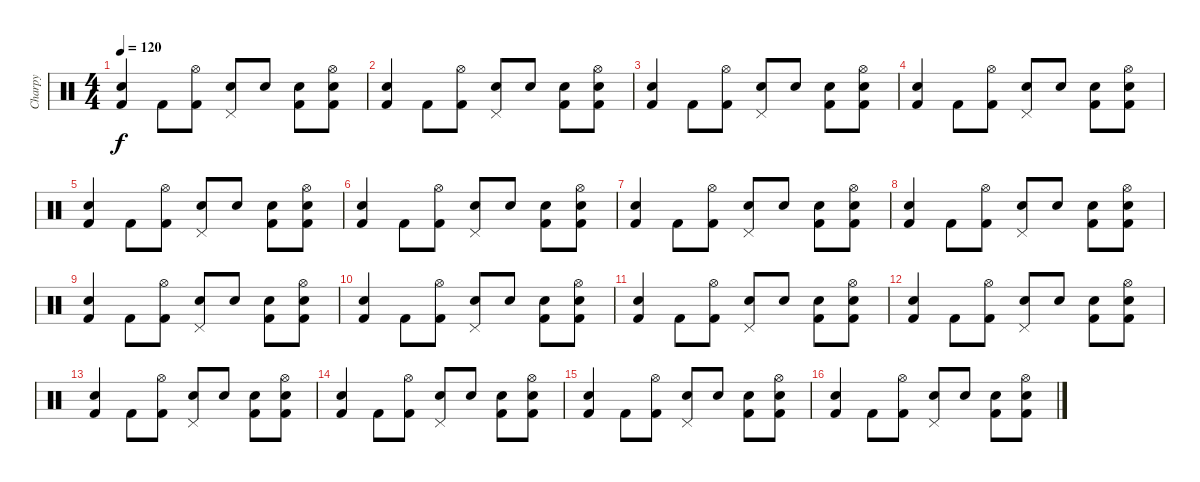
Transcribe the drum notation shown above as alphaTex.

\track ("Charpy" "Charpy") {instrument percussion}
\staff {score}
\articulation defaults
\ts (4 4)
\tempo 120
\clef neutral
\ks c
("Snare (hit) 2" "Kick (hit) 2").4{dy f} "Kick (hit) 2".8 ("Hi-Hat (open)" "Kick (hit) 2").8 ("Pedal Hi-Hat (hit)" "Snare (hit) 2").8 "Snare (hit) 2".8 ("Snare (hit) 2" "Kick (hit) 2").8 ("Hi-Hat (open)" "Snare (hit) 2" "Kick (hit) 2").8 |
("Snare (hit) 2" "Kick (hit) 2").4 "Kick (hit) 2".8 ("Hi-Hat (open)" "Kick (hit) 2").8 ("Pedal Hi-Hat (hit)" "Snare (hit) 2").8 "Snare (hit) 2".8 ("Snare (hit) 2" "Kick (hit) 2").8 ("Hi-Hat (open)" "Snare (hit) 2" "Kick (hit) 2").8 |
("Snare (hit) 2" "Kick (hit) 2").4 "Kick (hit) 2".8 ("Hi-Hat (open)" "Kick (hit) 2").8 ("Pedal Hi-Hat (hit)" "Snare (hit) 2").8 "Snare (hit) 2".8 ("Snare (hit) 2" "Kick (hit) 2").8 ("Hi-Hat (open)" "Snare (hit) 2" "Kick (hit) 2").8 |
("Snare (hit) 2" "Kick (hit) 2").4 "Kick (hit) 2".8 ("Hi-Hat (open)" "Kick (hit) 2").8 ("Pedal Hi-Hat (hit)" "Snare (hit) 2").8 "Snare (hit) 2".8 ("Snare (hit) 2" "Kick (hit) 2").8 ("Hi-Hat (open)" "Snare (hit) 2" "Kick (hit) 2").8 |
("Snare (hit) 2" "Kick (hit) 2").4 "Kick (hit) 2".8 ("Hi-Hat (open)" "Kick (hit) 2").8 ("Pedal Hi-Hat (hit)" "Snare (hit) 2").8 "Snare (hit) 2".8 ("Snare (hit) 2" "Kick (hit) 2").8 ("Hi-Hat (open)" "Snare (hit) 2" "Kick (hit) 2").8 |
("Snare (hit) 2" "Kick (hit) 2").4 "Kick (hit) 2".8 ("Hi-Hat (open)" "Kick (hit) 2").8 ("Pedal Hi-Hat (hit)" "Snare (hit) 2").8 "Snare (hit) 2".8 ("Snare (hit) 2" "Kick (hit) 2").8 ("Hi-Hat (open)" "Snare (hit) 2" "Kick (hit) 2").8 |
("Snare (hit) 2" "Kick (hit) 2").4 "Kick (hit) 2".8 ("Hi-Hat (open)" "Kick (hit) 2").8 ("Pedal Hi-Hat (hit)" "Snare (hit) 2").8 "Snare (hit) 2".8 ("Snare (hit) 2" "Kick (hit) 2").8 ("Hi-Hat (open)" "Snare (hit) 2" "Kick (hit) 2").8 |
("Snare (hit) 2" "Kick (hit) 2").4 "Kick (hit) 2".8 ("Hi-Hat (open)" "Kick (hit) 2").8 ("Pedal Hi-Hat (hit)" "Snare (hit) 2").8 "Snare (hit) 2".8 ("Snare (hit) 2" "Kick (hit) 2").8 ("Hi-Hat (open)" "Snare (hit) 2" "Kick (hit) 2").8 |
("Snare (hit) 2" "Kick (hit) 2").4 "Kick (hit) 2".8 ("Hi-Hat (open)" "Kick (hit) 2").8 ("Pedal Hi-Hat (hit)" "Snare (hit) 2").8 "Snare (hit) 2".8 ("Snare (hit) 2" "Kick (hit) 2").8 ("Hi-Hat (open)" "Snare (hit) 2" "Kick (hit) 2").8 |
("Snare (hit) 2" "Kick (hit) 2").4 "Kick (hit) 2".8 ("Hi-Hat (open)" "Kick (hit) 2").8 ("Pedal Hi-Hat (hit)" "Snare (hit) 2").8 "Snare (hit) 2".8 ("Snare (hit) 2" "Kick (hit) 2").8 ("Hi-Hat (open)" "Snare (hit) 2" "Kick (hit) 2").8 |
("Snare (hit) 2" "Kick (hit) 2").4 "Kick (hit) 2".8 ("Hi-Hat (open)" "Kick (hit) 2").8 ("Pedal Hi-Hat (hit)" "Snare (hit) 2").8 "Snare (hit) 2".8 ("Snare (hit) 2" "Kick (hit) 2").8 ("Hi-Hat (open)" "Snare (hit) 2" "Kick (hit) 2").8 |
("Snare (hit) 2" "Kick (hit) 2").4 "Kick (hit) 2".8 ("Hi-Hat (open)" "Kick (hit) 2").8 ("Pedal Hi-Hat (hit)" "Snare (hit) 2").8 "Snare (hit) 2".8 ("Snare (hit) 2" "Kick (hit) 2").8 ("Hi-Hat (open)" "Snare (hit) 2" "Kick (hit) 2").8 |
("Snare (hit) 2" "Kick (hit) 2").4 "Kick (hit) 2".8 ("Hi-Hat (open)" "Kick (hit) 2").8 ("Pedal Hi-Hat (hit)" "Snare (hit) 2").8 "Snare (hit) 2".8 ("Snare (hit) 2" "Kick (hit) 2").8 ("Hi-Hat (open)" "Snare (hit) 2" "Kick (hit) 2").8 |
("Snare (hit) 2" "Kick (hit) 2").4 "Kick (hit) 2".8 ("Hi-Hat (open)" "Kick (hit) 2").8 ("Pedal Hi-Hat (hit)" "Snare (hit) 2").8 "Snare (hit) 2".8 ("Snare (hit) 2" "Kick (hit) 2").8 ("Hi-Hat (open)" "Snare (hit) 2" "Kick (hit) 2").8 |
("Snare (hit) 2" "Kick (hit) 2").4 "Kick (hit) 2".8 ("Hi-Hat (open)" "Kick (hit) 2").8 ("Pedal Hi-Hat (hit)" "Snare (hit) 2").8 "Snare (hit) 2".8 ("Snare (hit) 2" "Kick (hit) 2").8 ("Hi-Hat (open)" "Snare (hit) 2" "Kick (hit) 2").8 |
("Snare (hit) 2" "Kick (hit) 2").4 "Kick (hit) 2".8 ("Hi-Hat (open)" "Kick (hit) 2").8 ("Pedal Hi-Hat (hit)" "Snare (hit) 2").8 "Snare (hit) 2".8 ("Snare (hit) 2" "Kick (hit) 2").8 ("Hi-Hat (open)" "Snare (hit) 2" "Kick (hit) 2").8
